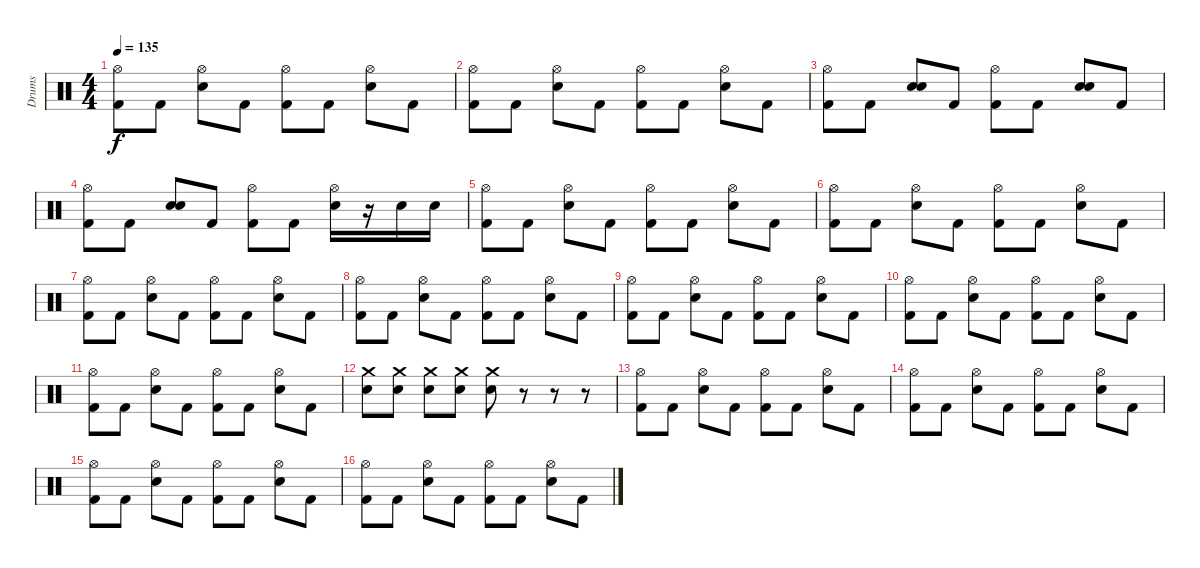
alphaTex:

\track ("Drums" "Drums") {instrument percussion}
\staff {score}
\articulation defaults
\ts (4 4)
\tempo 135
\clef neutral
\ks c
("Hi-Hat (open)" "Kick (hit) 2").8{dy f} "Kick (hit) 2".8 ("Hi-Hat (open)" "Electric Snare (hit)").8 "Kick (hit) 2".8 ("Hi-Hat (open)" "Kick (hit) 2").8 "Kick (hit) 2".8 ("Hi-Hat (open)" "Electric Snare (hit)").8 "Kick (hit) 2".8 |
("Hi-Hat (open)" "Kick (hit) 2").8 "Kick (hit) 2".8 ("Hi-Hat (open)" "Electric Snare (hit)").8 "Kick (hit) 2".8 ("Hi-Hat (open)" "Kick (hit) 2").8 "Kick (hit) 2".8 ("Hi-Hat (open)" "Electric Snare (hit)").8 "Kick (hit) 2".8 |
("Hi-Hat (open)" "Kick (hit) 2").8 "Kick (hit) 2".8 ("Electric Snare (hit)" "Electric Snare (hit)").8 "Kick (hit) 2".8 ("Hi-Hat (open)" "Kick (hit) 2").8 "Kick (hit) 2".8 ("Electric Snare (hit)" "Electric Snare (hit)").8 "Kick (hit) 2".8 |
("Hi-Hat (open)" "Kick (hit) 2").8 "Kick (hit) 2".8 ("Electric Snare (hit)" "Electric Snare (hit)").8 "Kick (hit) 2".8 ("Hi-Hat (open)" "Kick (hit) 2").8 "Kick (hit) 2".8 ("Hi-Hat (open)" "Electric Snare (hit)").16 r.16 "Electric Snare (hit)".16 "Electric Snare (hit)".16 |
("Hi-Hat (open)" "Kick (hit) 2").8 "Kick (hit) 2".8 ("Hi-Hat (open)" "Electric Snare (hit)").8 "Kick (hit) 2".8 ("Hi-Hat (open)" "Kick (hit) 2").8 "Kick (hit) 2".8 ("Hi-Hat (open)" "Electric Snare (hit)").8 "Kick (hit) 2".8 |
("Hi-Hat (open)" "Kick (hit) 2").8 "Kick (hit) 2".8 ("Hi-Hat (open)" "Electric Snare (hit)").8 "Kick (hit) 2".8 ("Hi-Hat (open)" "Kick (hit) 2").8 "Kick (hit) 2".8 ("Hi-Hat (open)" "Electric Snare (hit)").8 "Kick (hit) 2".8 |
("Hi-Hat (open)" "Kick (hit) 2").8 "Kick (hit) 2".8 ("Hi-Hat (open)" "Electric Snare (hit)").8 "Kick (hit) 2".8 ("Hi-Hat (open)" "Kick (hit) 2").8 "Kick (hit) 2".8 ("Hi-Hat (open)" "Electric Snare (hit)").8 "Kick (hit) 2".8 |
("Hi-Hat (open)" "Kick (hit) 2").8 "Kick (hit) 2".8 ("Hi-Hat (open)" "Electric Snare (hit)").8 "Kick (hit) 2".8 ("Hi-Hat (open)" "Kick (hit) 2").8 "Kick (hit) 2".8 ("Hi-Hat (open)" "Electric Snare (hit)").8 "Kick (hit) 2".8 |
("Hi-Hat (open)" "Kick (hit) 2").8 "Kick (hit) 2".8 ("Hi-Hat (open)" "Electric Snare (hit)").8 "Kick (hit) 2".8 ("Hi-Hat (open)" "Kick (hit) 2").8 "Kick (hit) 2".8 ("Hi-Hat (open)" "Electric Snare (hit)").8 "Kick (hit) 2".8 |
("Hi-Hat (open)" "Kick (hit) 2").8 "Kick (hit) 2".8 ("Hi-Hat (open)" "Electric Snare (hit)").8 "Kick (hit) 2".8 ("Hi-Hat (open)" "Kick (hit) 2").8 "Kick (hit) 2".8 ("Hi-Hat (open)" "Electric Snare (hit)").8 "Kick (hit) 2".8 |
("Hi-Hat (open)" "Kick (hit) 2").8 "Kick (hit) 2".8 ("Hi-Hat (open)" "Electric Snare (hit)").8 "Kick (hit) 2".8 ("Hi-Hat (open)" "Kick (hit) 2").8 "Kick (hit) 2".8 ("Hi-Hat (open)" "Electric Snare (hit)").8 "Kick (hit) 2".8 |
("Crash medium (hit)" "Electric Snare (hit)").8 ("Crash medium (hit)" "Electric Snare (hit)").8 ("Crash medium (hit)" "Electric Snare (hit)").8 ("Crash medium (hit)" "Electric Snare (hit)").8 ("Crash medium (hit)" "Electric Snare (hit)").8 r.8 r.8 r.8 |
("Hi-Hat (open)" "Kick (hit) 2").8 "Kick (hit) 2".8 ("Hi-Hat (open)" "Electric Snare (hit)").8 "Kick (hit) 2".8 ("Hi-Hat (open)" "Kick (hit) 2").8 "Kick (hit) 2".8 ("Hi-Hat (open)" "Electric Snare (hit)").8 "Kick (hit) 2".8 |
("Hi-Hat (open)" "Kick (hit) 2").8 "Kick (hit) 2".8 ("Hi-Hat (open)" "Electric Snare (hit)").8 "Kick (hit) 2".8 ("Hi-Hat (open)" "Kick (hit) 2").8 "Kick (hit) 2".8 ("Hi-Hat (open)" "Electric Snare (hit)").8 "Kick (hit) 2".8 |
("Hi-Hat (open)" "Kick (hit) 2").8 "Kick (hit) 2".8 ("Hi-Hat (open)" "Electric Snare (hit)").8 "Kick (hit) 2".8 ("Hi-Hat (open)" "Kick (hit) 2").8 "Kick (hit) 2".8 ("Hi-Hat (open)" "Electric Snare (hit)").8 "Kick (hit) 2".8 |
("Hi-Hat (open)" "Kick (hit) 2").8 "Kick (hit) 2".8 ("Hi-Hat (open)" "Electric Snare (hit)").8 "Kick (hit) 2".8 ("Hi-Hat (open)" "Kick (hit) 2").8 "Kick (hit) 2".8 ("Hi-Hat (open)" "Electric Snare (hit)").8 "Kick (hit) 2".8
